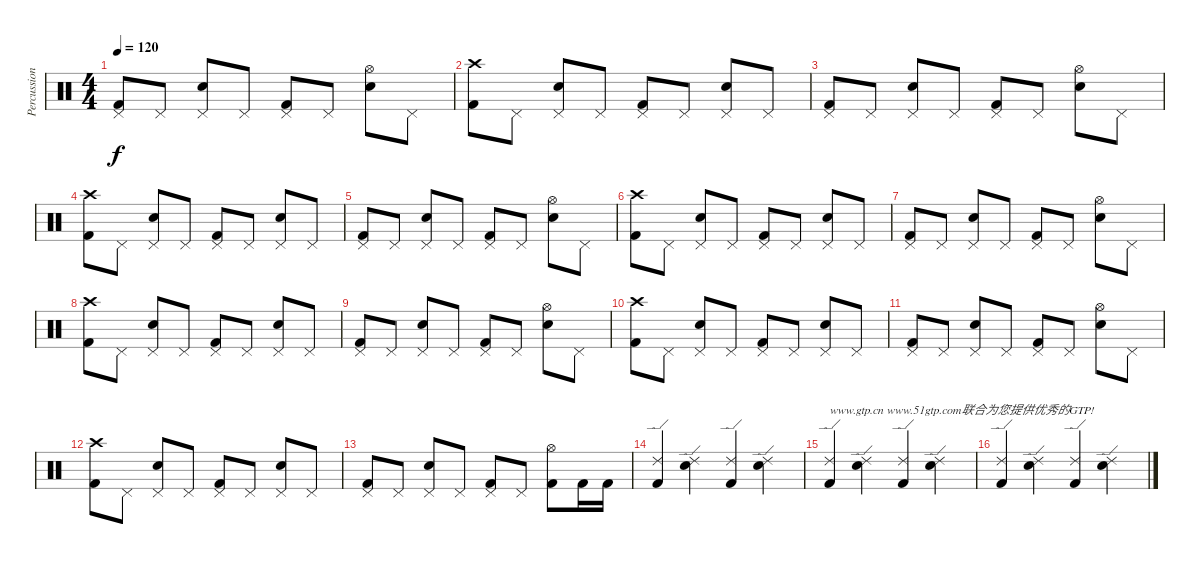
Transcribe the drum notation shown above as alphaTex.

\track ("Percussion" "Percussion") {instrument percussion}
\staff {score}
\articulation defaults
\ts (4 4)
\tempo 120
\clef neutral
\ks c
("Pedal Hi-Hat (hit)" "Kick (hit) 2").8{dy f} "Pedal Hi-Hat (hit)".8 ("Pedal Hi-Hat (hit)" "Electric Snare (hit)").8 "Pedal Hi-Hat (hit)".8 ("Pedal Hi-Hat (hit)" "Kick (hit) 2").8 "Pedal Hi-Hat (hit)".8 ("Hi-Hat (open)" "Electric Snare (hit)").8 "Pedal Hi-Hat (hit)".8 |
("Crash high (hit)" "Kick (hit) 2").8 "Pedal Hi-Hat (hit)".8 ("Pedal Hi-Hat (hit)" "Electric Snare (hit)").8 "Pedal Hi-Hat (hit)".8 ("Pedal Hi-Hat (hit)" "Kick (hit) 2").8 "Pedal Hi-Hat (hit)".8 ("Pedal Hi-Hat (hit)" "Electric Snare (hit)").8 "Pedal Hi-Hat (hit)".8 |
("Pedal Hi-Hat (hit)" "Kick (hit) 2").8 "Pedal Hi-Hat (hit)".8 ("Pedal Hi-Hat (hit)" "Electric Snare (hit)").8 "Pedal Hi-Hat (hit)".8 ("Pedal Hi-Hat (hit)" "Kick (hit) 2").8 "Pedal Hi-Hat (hit)".8 ("Hi-Hat (open)" "Electric Snare (hit)").8 "Pedal Hi-Hat (hit)".8 |
("Crash high (hit)" "Kick (hit) 2").8 "Pedal Hi-Hat (hit)".8 ("Pedal Hi-Hat (hit)" "Electric Snare (hit)").8 "Pedal Hi-Hat (hit)".8 ("Pedal Hi-Hat (hit)" "Kick (hit) 2").8 "Pedal Hi-Hat (hit)".8 ("Pedal Hi-Hat (hit)" "Electric Snare (hit)").8 "Pedal Hi-Hat (hit)".8 |
("Pedal Hi-Hat (hit)" "Kick (hit) 2").8 "Pedal Hi-Hat (hit)".8 ("Pedal Hi-Hat (hit)" "Electric Snare (hit)").8 "Pedal Hi-Hat (hit)".8 ("Pedal Hi-Hat (hit)" "Kick (hit) 2").8 "Pedal Hi-Hat (hit)".8 ("Hi-Hat (open)" "Electric Snare (hit)").8 "Pedal Hi-Hat (hit)".8 |
("Crash high (hit)" "Kick (hit) 2").8 "Pedal Hi-Hat (hit)".8 ("Pedal Hi-Hat (hit)" "Electric Snare (hit)").8 "Pedal Hi-Hat (hit)".8 ("Pedal Hi-Hat (hit)" "Kick (hit) 2").8 "Pedal Hi-Hat (hit)".8 ("Pedal Hi-Hat (hit)" "Electric Snare (hit)").8 "Pedal Hi-Hat (hit)".8 |
("Pedal Hi-Hat (hit)" "Kick (hit) 2").8 "Pedal Hi-Hat (hit)".8 ("Pedal Hi-Hat (hit)" "Electric Snare (hit)").8 "Pedal Hi-Hat (hit)".8 ("Pedal Hi-Hat (hit)" "Kick (hit) 2").8 "Pedal Hi-Hat (hit)".8 ("Hi-Hat (open)" "Electric Snare (hit)").8 "Pedal Hi-Hat (hit)".8 |
("Crash high (hit)" "Kick (hit) 2").8 "Pedal Hi-Hat (hit)".8 ("Pedal Hi-Hat (hit)" "Electric Snare (hit)").8 "Pedal Hi-Hat (hit)".8 ("Pedal Hi-Hat (hit)" "Kick (hit) 2").8 "Pedal Hi-Hat (hit)".8 ("Pedal Hi-Hat (hit)" "Electric Snare (hit)").8 "Pedal Hi-Hat (hit)".8 |
("Pedal Hi-Hat (hit)" "Kick (hit) 2").8 "Pedal Hi-Hat (hit)".8 ("Pedal Hi-Hat (hit)" "Electric Snare (hit)").8 "Pedal Hi-Hat (hit)".8 ("Pedal Hi-Hat (hit)" "Kick (hit) 2").8 "Pedal Hi-Hat (hit)".8 ("Hi-Hat (open)" "Electric Snare (hit)").8 "Pedal Hi-Hat (hit)".8 |
("Crash high (hit)" "Kick (hit) 2").8 "Pedal Hi-Hat (hit)".8 ("Pedal Hi-Hat (hit)" "Electric Snare (hit)").8 "Pedal Hi-Hat (hit)".8 ("Pedal Hi-Hat (hit)" "Kick (hit) 2").8 "Pedal Hi-Hat (hit)".8 ("Pedal Hi-Hat (hit)" "Electric Snare (hit)").8 "Pedal Hi-Hat (hit)".8 |
("Pedal Hi-Hat (hit)" "Kick (hit) 2").8 "Pedal Hi-Hat (hit)".8 ("Pedal Hi-Hat (hit)" "Electric Snare (hit)").8 "Pedal Hi-Hat (hit)".8 ("Pedal Hi-Hat (hit)" "Kick (hit) 2").8 "Pedal Hi-Hat (hit)".8 ("Hi-Hat (open)" "Electric Snare (hit)").8 "Pedal Hi-Hat (hit)".8 |
("Crash high (hit)" "Kick (hit) 2").8 "Pedal Hi-Hat (hit)".8 ("Pedal Hi-Hat (hit)" "Electric Snare (hit)").8 "Pedal Hi-Hat (hit)".8 ("Pedal Hi-Hat (hit)" "Kick (hit) 2").8 "Pedal Hi-Hat (hit)".8 ("Pedal Hi-Hat (hit)" "Electric Snare (hit)").8 "Pedal Hi-Hat (hit)".8 |
("Pedal Hi-Hat (hit)" "Kick (hit) 2").8 "Pedal Hi-Hat (hit)".8 ("Pedal Hi-Hat (hit)" "Electric Snare (hit)").8 "Pedal Hi-Hat (hit)".8 ("Pedal Hi-Hat (hit)" "Kick (hit) 2").8 "Pedal Hi-Hat (hit)".8 ("Hi-Hat (open)" "Kick (hit) 2").8 "Kick (hit) 2".16 "Kick (hit) 2".16 |
("Ride (edge) 2" "Kick (hit) 2").4 ("Ride (edge) 2" "Electric Snare (hit)").4 ("Ride (edge) 2" "Kick (hit) 2").4 ("Ride (edge) 2" "Electric Snare (hit)").4 |
("Ride (edge) 2" "Kick (hit) 2").4{txt "www.gtp.cn www.51gtp.com联合为您提供优秀的GTP!"} ("Ride (edge) 2" "Electric Snare (hit)").4 ("Ride (edge) 2" "Kick (hit) 2").4 ("Ride (edge) 2" "Electric Snare (hit)").4 |
("Ride (edge) 2" "Kick (hit) 2").4 ("Ride (edge) 2" "Electric Snare (hit)").4 ("Ride (edge) 2" "Kick (hit) 2").4 ("Ride (edge) 2" "Electric Snare (hit)").4
